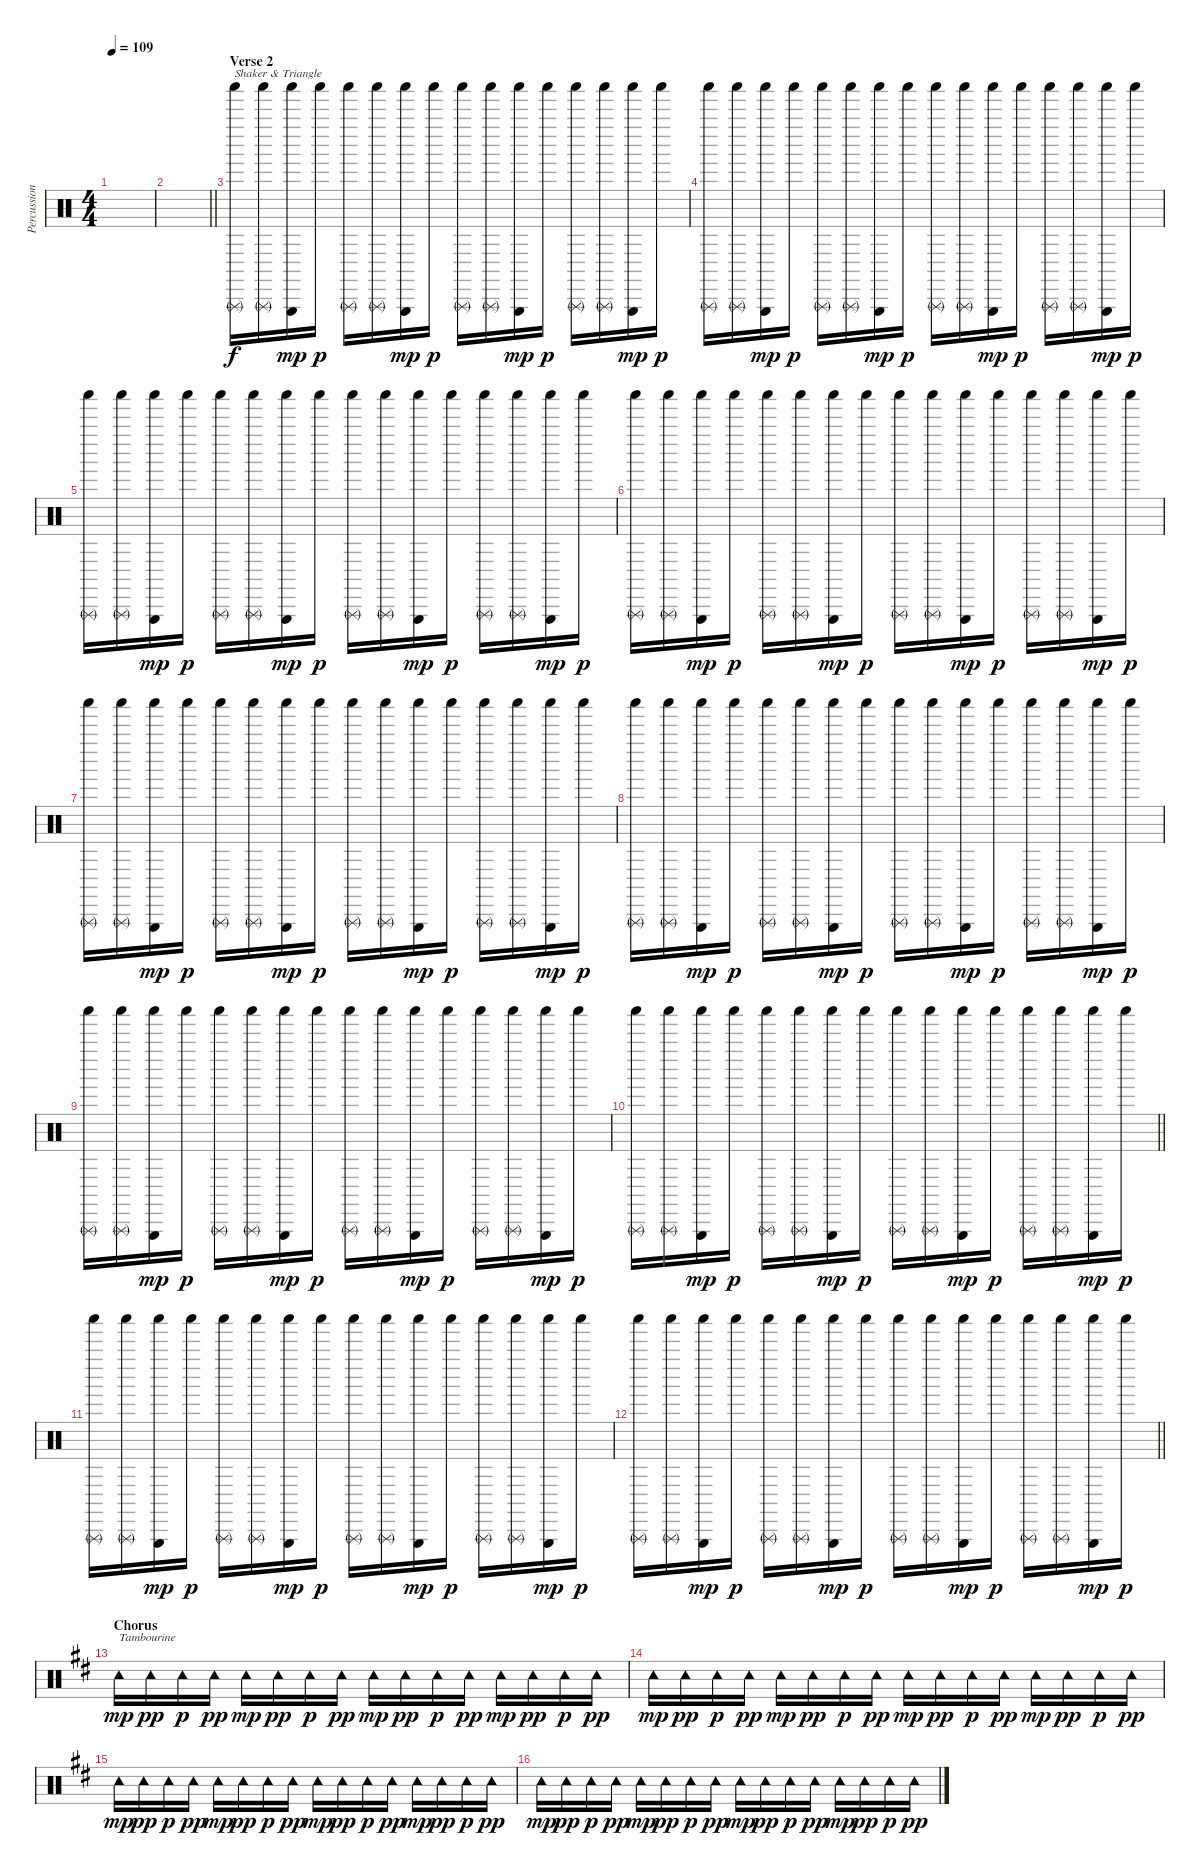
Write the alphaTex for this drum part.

\track ("Percussion (Rick McMurray)" "Percussion") {instrument percussion}
\staff {score}
\articulation defaults
\ts (4 4)
\tempo 109
\clef neutral
\ks c
|
\barLineRight lightlight
|
\section ("" "Verse 2")
("Shaker (hit)" "Triangle (rnute)").16{txt "Shaker & Triangle"} ("Shaker (hit)" "Triangle (rnute)").16 ("Shaker (hit)" "Triangle (hit)").16{dy mp} "Shaker (hit)".16{dy p} ("Shaker (hit)" "Triangle (rnute)").16 ("Shaker (hit)" "Triangle (rnute)").16 ("Shaker (hit)" "Triangle (hit)").16{dy mp} "Shaker (hit)".16{dy p} ("Shaker (hit)" "Triangle (rnute)").16 ("Shaker (hit)" "Triangle (rnute)").16 ("Shaker (hit)" "Triangle (hit)").16{dy mp} "Shaker (hit)".16{dy p} ("Shaker (hit)" "Triangle (rnute)").16 ("Shaker (hit)" "Triangle (rnute)").16 ("Shaker (hit)" "Triangle (hit)").16{dy mp} "Shaker (hit)".16{dy p} |
("Shaker (hit)" "Triangle (rnute)").16 ("Shaker (hit)" "Triangle (rnute)").16 ("Shaker (hit)" "Triangle (hit)").16{dy mp} "Shaker (hit)".16{dy p} ("Shaker (hit)" "Triangle (rnute)").16 ("Shaker (hit)" "Triangle (rnute)").16 ("Shaker (hit)" "Triangle (hit)").16{dy mp} "Shaker (hit)".16{dy p} ("Shaker (hit)" "Triangle (rnute)").16 ("Shaker (hit)" "Triangle (rnute)").16 ("Shaker (hit)" "Triangle (hit)").16{dy mp} "Shaker (hit)".16{dy p} ("Shaker (hit)" "Triangle (rnute)").16 ("Shaker (hit)" "Triangle (rnute)").16 ("Shaker (hit)" "Triangle (hit)").16{dy mp} "Shaker (hit)".16{dy p} |
("Shaker (hit)" "Triangle (rnute)").16 ("Shaker (hit)" "Triangle (rnute)").16 ("Shaker (hit)" "Triangle (hit)").16{dy mp} "Shaker (hit)".16{dy p} ("Shaker (hit)" "Triangle (rnute)").16 ("Shaker (hit)" "Triangle (rnute)").16 ("Shaker (hit)" "Triangle (hit)").16{dy mp} "Shaker (hit)".16{dy p} ("Shaker (hit)" "Triangle (rnute)").16 ("Shaker (hit)" "Triangle (rnute)").16 ("Shaker (hit)" "Triangle (hit)").16{dy mp} "Shaker (hit)".16{dy p} ("Shaker (hit)" "Triangle (rnute)").16 ("Shaker (hit)" "Triangle (rnute)").16 ("Shaker (hit)" "Triangle (hit)").16{dy mp} "Shaker (hit)".16{dy p} |
("Shaker (hit)" "Triangle (rnute)").16 ("Shaker (hit)" "Triangle (rnute)").16 ("Shaker (hit)" "Triangle (hit)").16{dy mp} "Shaker (hit)".16{dy p} ("Shaker (hit)" "Triangle (rnute)").16 ("Shaker (hit)" "Triangle (rnute)").16 ("Shaker (hit)" "Triangle (hit)").16{dy mp} "Shaker (hit)".16{dy p} ("Shaker (hit)" "Triangle (rnute)").16 ("Shaker (hit)" "Triangle (rnute)").16 ("Shaker (hit)" "Triangle (hit)").16{dy mp} "Shaker (hit)".16{dy p} ("Shaker (hit)" "Triangle (rnute)").16 ("Shaker (hit)" "Triangle (rnute)").16 ("Shaker (hit)" "Triangle (hit)").16{dy mp} "Shaker (hit)".16{dy p} |
("Shaker (hit)" "Triangle (rnute)").16 ("Shaker (hit)" "Triangle (rnute)").16 ("Shaker (hit)" "Triangle (hit)").16{dy mp} "Shaker (hit)".16{dy p} ("Shaker (hit)" "Triangle (rnute)").16 ("Shaker (hit)" "Triangle (rnute)").16 ("Shaker (hit)" "Triangle (hit)").16{dy mp} "Shaker (hit)".16{dy p} ("Shaker (hit)" "Triangle (rnute)").16 ("Shaker (hit)" "Triangle (rnute)").16 ("Shaker (hit)" "Triangle (hit)").16{dy mp} "Shaker (hit)".16{dy p} ("Shaker (hit)" "Triangle (rnute)").16 ("Shaker (hit)" "Triangle (rnute)").16 ("Shaker (hit)" "Triangle (hit)").16{dy mp} "Shaker (hit)".16{dy p} |
("Shaker (hit)" "Triangle (rnute)").16 ("Shaker (hit)" "Triangle (rnute)").16 ("Shaker (hit)" "Triangle (hit)").16{dy mp} "Shaker (hit)".16{dy p} ("Shaker (hit)" "Triangle (rnute)").16 ("Shaker (hit)" "Triangle (rnute)").16 ("Shaker (hit)" "Triangle (hit)").16{dy mp} "Shaker (hit)".16{dy p} ("Shaker (hit)" "Triangle (rnute)").16 ("Shaker (hit)" "Triangle (rnute)").16 ("Shaker (hit)" "Triangle (hit)").16{dy mp} "Shaker (hit)".16{dy p} ("Shaker (hit)" "Triangle (rnute)").16 ("Shaker (hit)" "Triangle (rnute)").16 ("Shaker (hit)" "Triangle (hit)").16{dy mp} "Shaker (hit)".16{dy p} |
("Shaker (hit)" "Triangle (rnute)").16 ("Shaker (hit)" "Triangle (rnute)").16 ("Shaker (hit)" "Triangle (hit)").16{dy mp} "Shaker (hit)".16{dy p} ("Shaker (hit)" "Triangle (rnute)").16 ("Shaker (hit)" "Triangle (rnute)").16 ("Shaker (hit)" "Triangle (hit)").16{dy mp} "Shaker (hit)".16{dy p} ("Shaker (hit)" "Triangle (rnute)").16 ("Shaker (hit)" "Triangle (rnute)").16 ("Shaker (hit)" "Triangle (hit)").16{dy mp} "Shaker (hit)".16{dy p} ("Shaker (hit)" "Triangle (rnute)").16 ("Shaker (hit)" "Triangle (rnute)").16 ("Shaker (hit)" "Triangle (hit)").16{dy mp} "Shaker (hit)".16{dy p} |
\barLineRight lightlight
("Shaker (hit)" "Triangle (rnute)").16 ("Shaker (hit)" "Triangle (rnute)").16 ("Shaker (hit)" "Triangle (hit)").16{dy mp} "Shaker (hit)".16{dy p} ("Shaker (hit)" "Triangle (rnute)").16 ("Shaker (hit)" "Triangle (rnute)").16 ("Shaker (hit)" "Triangle (hit)").16{dy mp} "Shaker (hit)".16{dy p} ("Shaker (hit)" "Triangle (rnute)").16 ("Shaker (hit)" "Triangle (rnute)").16 ("Shaker (hit)" "Triangle (hit)").16{dy mp} "Shaker (hit)".16{dy p} ("Shaker (hit)" "Triangle (rnute)").16 ("Shaker (hit)" "Triangle (rnute)").16 ("Shaker (hit)" "Triangle (hit)").16{dy mp} "Shaker (hit)".16{dy p} |
("Shaker (hit)" "Triangle (rnute)").16 ("Shaker (hit)" "Triangle (rnute)").16 ("Shaker (hit)" "Triangle (hit)").16{dy mp} "Shaker (hit)".16{dy p} ("Shaker (hit)" "Triangle (rnute)").16 ("Shaker (hit)" "Triangle (rnute)").16 ("Shaker (hit)" "Triangle (hit)").16{dy mp} "Shaker (hit)".16{dy p} ("Shaker (hit)" "Triangle (rnute)").16 ("Shaker (hit)" "Triangle (rnute)").16 ("Shaker (hit)" "Triangle (hit)").16{dy mp} "Shaker (hit)".16{dy p} ("Shaker (hit)" "Triangle (rnute)").16 ("Shaker (hit)" "Triangle (rnute)").16 ("Shaker (hit)" "Triangle (hit)").16{dy mp} "Shaker (hit)".16{dy p} |
\barLineRight lightlight
("Shaker (hit)" "Triangle (rnute)").16 ("Shaker (hit)" "Triangle (rnute)").16 ("Shaker (hit)" "Triangle (hit)").16{dy mp} "Shaker (hit)".16{dy p} ("Shaker (hit)" "Triangle (rnute)").16 ("Shaker (hit)" "Triangle (rnute)").16 ("Shaker (hit)" "Triangle (hit)").16{dy mp} "Shaker (hit)".16{dy p} ("Shaker (hit)" "Triangle (rnute)").16 ("Shaker (hit)" "Triangle (rnute)").16 ("Shaker (hit)" "Triangle (hit)").16{dy mp} "Shaker (hit)".16{dy p} ("Shaker (hit)" "Triangle (rnute)").16 ("Shaker (hit)" "Triangle (rnute)").16 ("Shaker (hit)" "Triangle (hit)").16{dy mp} "Shaker (hit)".16{dy p} |
\section ("" "Chorus")
\ks d "Tambourine (hit)".16{txt "Tambourine" dy mp} "Tambourine (hit)".16{dy pp} "Tambourine (hit)".16{dy p} "Tambourine (hit)".16{dy pp} "Tambourine (hit)".16{dy mp} "Tambourine (hit)".16{dy pp} "Tambourine (hit)".16{dy p} "Tambourine (hit)".16{dy pp} "Tambourine (hit)".16{dy mp} "Tambourine (hit)".16{dy pp} "Tambourine (hit)".16{dy p} "Tambourine (hit)".16{dy pp} "Tambourine (hit)".16{dy mp} "Tambourine (hit)".16{dy pp} "Tambourine (hit)".16{dy p} "Tambourine (hit)".16{dy pp}
|
"Tambourine (hit)".16{dy mp} "Tambourine (hit)".16{dy pp} "Tambourine (hit)".16{dy p} "Tambourine (hit)".16{dy pp} "Tambourine (hit)".16{dy mp} "Tambourine (hit)".16{dy pp} "Tambourine (hit)".16{dy p} "Tambourine (hit)".16{dy pp} "Tambourine (hit)".16{dy mp} "Tambourine (hit)".16{dy pp} "Tambourine (hit)".16{dy p} "Tambourine (hit)".16{dy pp} "Tambourine (hit)".16{dy mp} "Tambourine (hit)".16{dy pp} "Tambourine (hit)".16{dy p} "Tambourine (hit)".16{dy pp} |
"Tambourine (hit)".16{dy mp} "Tambourine (hit)".16{dy pp} "Tambourine (hit)".16{dy p} "Tambourine (hit)".16{dy pp} "Tambourine (hit)".16{dy mp} "Tambourine (hit)".16{dy pp} "Tambourine (hit)".16{dy p} "Tambourine (hit)".16{dy pp} "Tambourine (hit)".16{dy mp} "Tambourine (hit)".16{dy pp} "Tambourine (hit)".16{dy p} "Tambourine (hit)".16{dy pp} "Tambourine (hit)".16{dy mp} "Tambourine (hit)".16{dy pp} "Tambourine (hit)".16{dy p} "Tambourine (hit)".16{dy pp} |
"Tambourine (hit)".16{dy mp} "Tambourine (hit)".16{dy pp} "Tambourine (hit)".16{dy p} "Tambourine (hit)".16{dy pp} "Tambourine (hit)".16{dy mp} "Tambourine (hit)".16{dy pp} "Tambourine (hit)".16{dy p} "Tambourine (hit)".16{dy pp} "Tambourine (hit)".16{dy mp} "Tambourine (hit)".16{dy pp} "Tambourine (hit)".16{dy p} "Tambourine (hit)".16{dy pp} "Tambourine (hit)".16{dy mp} "Tambourine (hit)".16{dy pp} "Tambourine (hit)".16{dy p} "Tambourine (hit)".16{dy pp}
